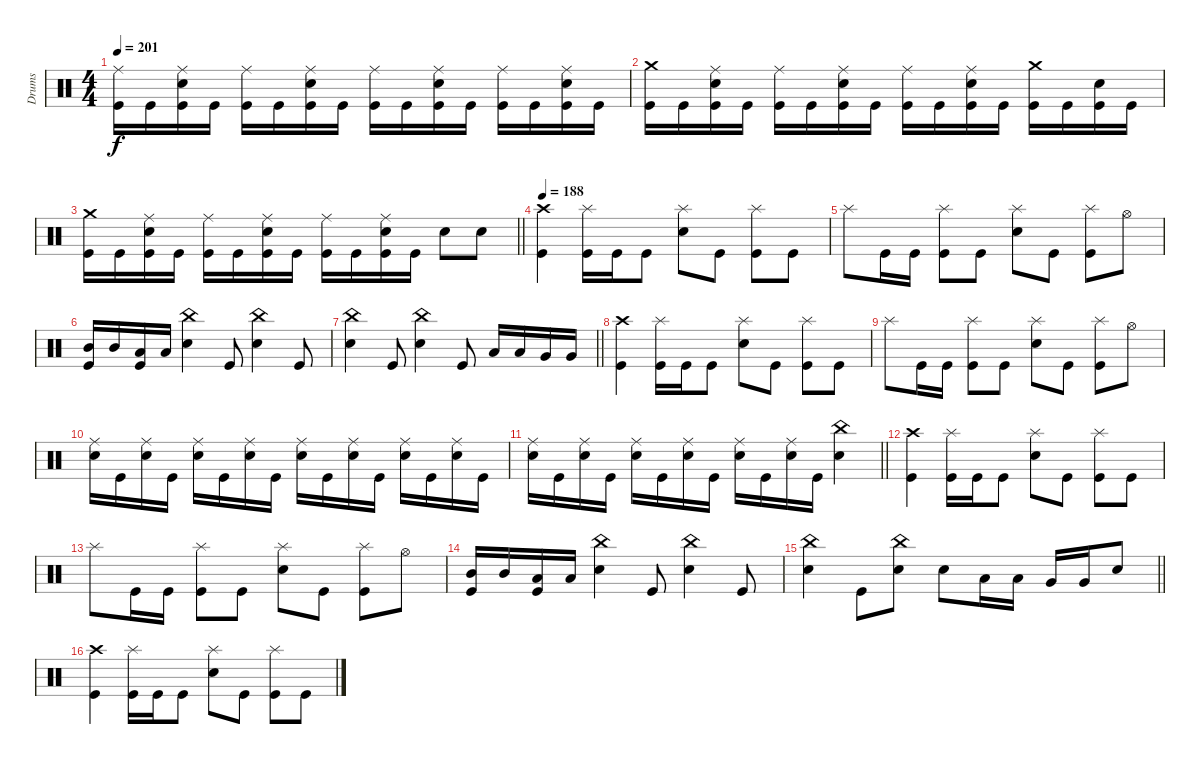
\track ("Drums" "Drums") {instrument percussion}
\staff
\articulation defaults
\ts (4 4)
\tempo 201
\clef neutral
\ks c
("Ride (middle)" "Kick (hit)").16{dy f} "Kick (hit)".16 ("Ride (middle)" "Electric Snare (hit)" "Kick (hit)").16 "Kick (hit)".16 ("Ride (middle)" "Kick (hit)").16 "Kick (hit)".16 ("Ride (middle)" "Electric Snare (hit)" "Kick (hit)").16 "Kick (hit)".16 ("Ride (middle)" "Kick (hit)").16 "Kick (hit)".16 ("Ride (middle)" "Electric Snare (hit)" "Kick (hit)").16 "Kick (hit)".16 ("Ride (middle)" "Kick (hit)").16 "Kick (hit)".16 ("Ride (middle)" "Electric Snare (hit)" "Kick (hit)").16 "Kick (hit)".16 |
("Crash medium (hit)" "Kick (hit)").16 "Kick (hit)".16 ("Ride (middle)" "Electric Snare (hit)" "Kick (hit)").16 "Kick (hit)".16 ("Ride (middle)" "Kick (hit)").16 "Kick (hit)".16 ("Ride (middle)" "Electric Snare (hit)" "Kick (hit)").16 "Kick (hit)".16 ("Ride (middle)" "Kick (hit)").16 "Kick (hit)".16 ("Ride (middle)" "Electric Snare (hit)" "Kick (hit)").16 "Kick (hit)".16 ("Crash medium (hit)" "Kick (hit)").16 "Kick (hit)".16 ("Electric Snare (hit)" "Kick (hit)").16 "Kick (hit)".16 |
\barLineRight lightlight
("Crash medium (hit)" "Kick (hit)").16 "Kick (hit)".16 ("Ride (middle)" "Electric Snare (hit)" "Kick (hit)").16 "Kick (hit)".16 ("Ride (middle)" "Kick (hit)").16 "Kick (hit)".16 ("Ride (middle)" "Electric Snare (hit)" "Kick (hit)").16 "Kick (hit)".16 ("Ride (middle)" "Kick (hit)").16 "Kick (hit)".16 ("Ride (middle)" "Electric Snare (hit)" "Kick (hit)").16 "Kick (hit)".16 "Electric Snare (hit)".8 "Electric Snare (hit)".8 |
\section ("" "")
\tempo 188
("Crash high (hit)" "Kick (hit)").4 ("Splash (hit)" "Kick (hit)").16 "Kick (hit)".16 "Kick (hit)".8 ("Splash (hit)" "Electric Snare (hit)").8 "Kick (hit)".8 ("Splash (hit)" "Kick (hit)").8 "Kick (hit)".8 |
"Splash (hit)".8 "Kick (hit)".16 "Kick (hit)".16 ("Splash (hit)" "Kick (hit)").8 "Kick (hit)".8 ("Splash (hit)" "Electric Snare (hit)").8 "Kick (hit)".8 ("Splash (hit)" "Kick (hit)").8 "Hi-Hat (open)".8 |
("Mid Tom (hit)" "Kick (hit)").16 "Mid Tom (hit)".16 ("Low Tom (hit)" "Kick (hit)").16 "Low Tom (hit)".16 ("China (hit)" "Electric Snare (hit)").4 "Kick (hit)".8 ("China (hit)" "Electric Snare (hit)").4 "Kick (hit)".8 |
\barLineRight lightlight
("China (hit)" "Electric Snare (hit)").4 "Kick (hit)".8 ("China (hit)" "Electric Snare (hit)").4 "Kick (hit)".8 "Low Tom (hit)".16 "Low Tom (hit)".16 "Very Low Tom (hit)".16 "Very Low Tom (hit)".16 |
("Crash high (hit)" "Kick (hit)").4 ("Splash (hit)" "Kick (hit)").16 "Kick (hit)".16 "Kick (hit)".8 ("Splash (hit)" "Electric Snare (hit)").8 "Kick (hit)".8 ("Splash (hit)" "Kick (hit)").8 "Kick (hit)".8 |
"Splash (hit)".8 "Kick (hit)".16 "Kick (hit)".16 ("Splash (hit)" "Kick (hit)").8 "Kick (hit)".8 ("Splash (hit)" "Electric Snare (hit)").8 "Kick (hit)".8 ("Splash (hit)" "Kick (hit)").8 "Hi-Hat (open)".8 |
("Ride (middle)" "Electric Snare (hit)").16 "Kick (hit)".16 ("Ride (middle)" "Electric Snare (hit)").16 "Kick (hit)".16 ("Ride (middle)" "Electric Snare (hit)").16 "Kick (hit)".16 ("Ride (middle)" "Electric Snare (hit)").16 "Kick (hit)".16 ("Ride (middle)" "Electric Snare (hit)").16 "Kick (hit)".16 ("Ride (middle)" "Electric Snare (hit)").16 "Kick (hit)".16 ("Ride (middle)" "Electric Snare (hit)").16 "Kick (hit)".16 ("Ride (middle)" "Electric Snare (hit)").16 "Kick (hit)".16 |
\barLineRight lightlight
("Ride (middle)" "Electric Snare (hit)").16 "Kick (hit)".16 ("Ride (middle)" "Electric Snare (hit)").16 "Kick (hit)".16 ("Ride (middle)" "Electric Snare (hit)").16 "Kick (hit)".16 ("Ride (middle)" "Electric Snare (hit)").16 "Kick (hit)".16 ("Ride (middle)" "Electric Snare (hit)").16 "Kick (hit)".16 ("Ride (middle)" "Electric Snare (hit)").16 "Kick (hit)".16 ("China (hit)" "Electric Snare (hit)").4 |
("Crash high (hit)" "Kick (hit)").4 ("Splash (hit)" "Kick (hit)").16 "Kick (hit)".16 "Kick (hit)".8 ("Splash (hit)" "Electric Snare (hit)").8 "Kick (hit)".8 ("Splash (hit)" "Kick (hit)").8 "Kick (hit)".8 |
"Splash (hit)".8 "Kick (hit)".16 "Kick (hit)".16 ("Splash (hit)" "Kick (hit)").8 "Kick (hit)".8 ("Splash (hit)" "Electric Snare (hit)").8 "Kick (hit)".8 ("Splash (hit)" "Kick (hit)").8 "Hi-Hat (open)".8 |
("Mid Tom (hit)" "Kick (hit)").16 "Mid Tom (hit)".16 ("Low Tom (hit)" "Kick (hit)").16 "Low Tom (hit)".16 ("China (hit)" "Electric Snare (hit)").4 "Kick (hit)".8 ("China (hit)" "Electric Snare (hit)").4 "Kick (hit)".8 |
\barLineRight lightlight
("China (hit)" "Electric Snare (hit)").4 "Kick (hit)".8 ("China (hit)" "Electric Snare (hit)").8 "Electric Snare (hit)".8 "Low Tom (hit)".16 "Low Tom (hit)".16 "Very Low Tom (hit)".16 "Very Low Tom (hit)".16 "Electric Snare (hit)".8 |
("Crash high (hit)" "Kick (hit)").4 ("Splash (hit)" "Kick (hit)").16 "Kick (hit)".16 "Kick (hit)".8 ("Splash (hit)" "Electric Snare (hit)").8 "Kick (hit)".8 ("Splash (hit)" "Kick (hit)").8 "Kick (hit)".8
